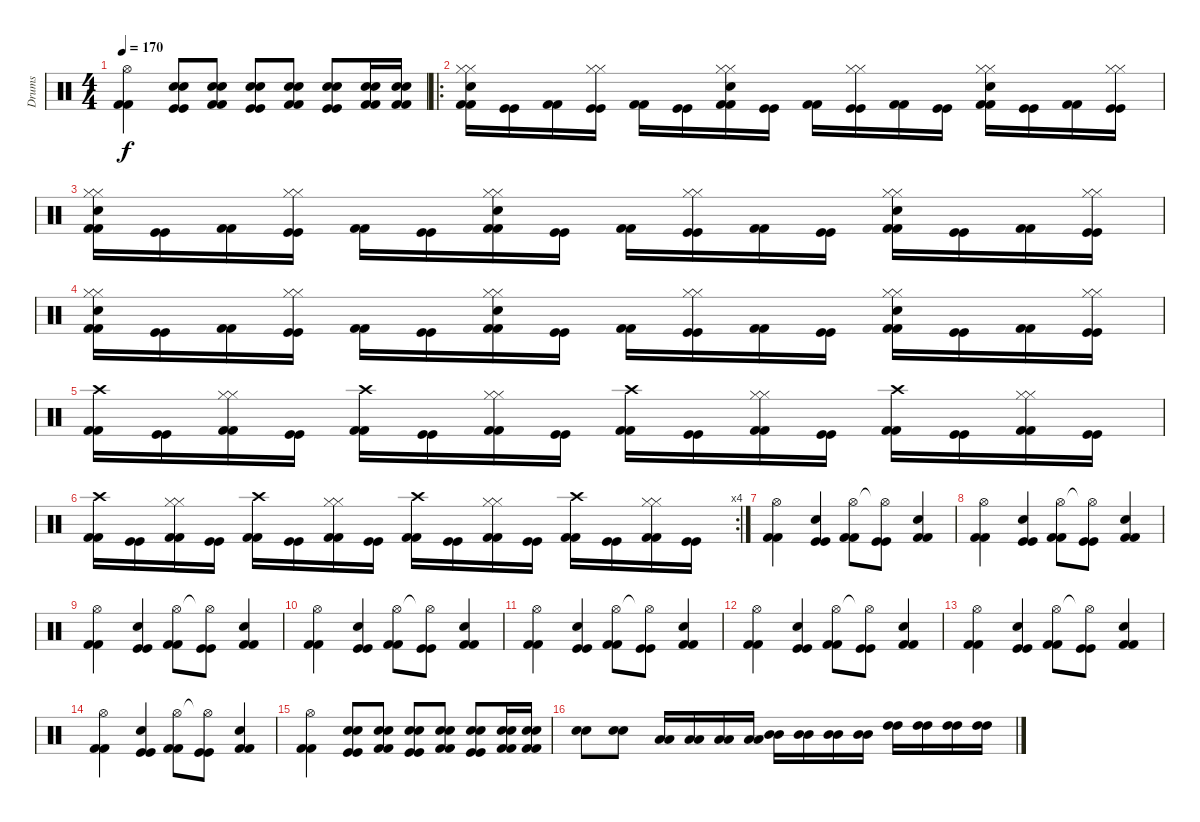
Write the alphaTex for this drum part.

\track ("Drums" "Drums") {instrument percussion}
\staff {score}
\articulation defaults
\ts (4 4)
\tempo 170
\clef neutral
\ks c
("Hi-Hat (open)" "Kick (hit) 2" "Kick (hit) 2").4{dy f} ("Electric Snare (hit)" "Electric Snare (hit)" "Kick (hit)" "Kick (hit)").8 ("Electric Snare (hit)" "Electric Snare (hit)" "Kick (hit) 2" "Kick (hit) 2").8 ("Electric Snare (hit)" "Electric Snare (hit)" "Kick (hit)" "Kick (hit)").8 ("Electric Snare (hit)" "Electric Snare (hit)" "Kick (hit) 2" "Kick (hit) 2").8 ("Electric Snare (hit)" "Electric Snare (hit)" "Kick (hit)" "Kick (hit)").8 ("Electric Snare (hit)" "Electric Snare (hit)" "Kick (hit) 2" "Kick (hit) 2").16 ("Electric Snare (hit)" "Electric Snare (hit)" "Kick (hit) 2" "Kick (hit) 2").16 |
\ro
("Kick (hit) 2" "Kick (hit) 2" "Electric Snare (hit)" "Hi-Hat (closed)" "Hi-Hat (closed)").16 ("Kick (hit)" "Kick (hit)").16 ("Kick (hit) 2" "Kick (hit) 2").16 ("Kick (hit)" "Kick (hit)" "Hi-Hat (closed)" "Hi-Hat (closed)").16 ("Kick (hit) 2" "Kick (hit) 2").16 ("Kick (hit)" "Kick (hit)").16 ("Kick (hit) 2" "Kick (hit) 2" "Electric Snare (hit)" "Hi-Hat (closed)" "Hi-Hat (closed)").16 ("Kick (hit)" "Kick (hit)").16 ("Kick (hit) 2" "Kick (hit) 2").16 ("Kick (hit)" "Kick (hit)" "Hi-Hat (closed)" "Hi-Hat (closed)").16 ("Kick (hit) 2" "Kick (hit) 2").16 ("Kick (hit)" "Kick (hit)").16 ("Kick (hit) 2" "Kick (hit) 2" "Electric Snare (hit)" "Hi-Hat (closed)" "Hi-Hat (closed)").16 ("Kick (hit)" "Kick (hit)").16 ("Kick (hit) 2" "Kick (hit) 2").16 ("Kick (hit)" "Kick (hit)" "Hi-Hat (closed)" "Hi-Hat (closed)").16 |
("Kick (hit) 2" "Kick (hit) 2" "Electric Snare (hit)" "Hi-Hat (closed)" "Hi-Hat (closed)").16 ("Kick (hit)" "Kick (hit)").16 ("Kick (hit) 2" "Kick (hit) 2").16 ("Kick (hit)" "Kick (hit)" "Hi-Hat (closed)" "Hi-Hat (closed)").16 ("Kick (hit) 2" "Kick (hit) 2").16 ("Kick (hit)" "Kick (hit)").16 ("Kick (hit) 2" "Kick (hit) 2" "Electric Snare (hit)" "Hi-Hat (closed)" "Hi-Hat (closed)").16 ("Kick (hit)" "Kick (hit)").16 ("Kick (hit) 2" "Kick (hit) 2").16 ("Kick (hit)" "Kick (hit)" "Hi-Hat (closed)" "Hi-Hat (closed)").16 ("Kick (hit) 2" "Kick (hit) 2").16 ("Kick (hit)" "Kick (hit)").16 ("Kick (hit) 2" "Kick (hit) 2" "Electric Snare (hit)" "Hi-Hat (closed)" "Hi-Hat (closed)").16 ("Kick (hit)" "Kick (hit)").16 ("Kick (hit) 2" "Kick (hit) 2").16 ("Kick (hit)" "Kick (hit)" "Hi-Hat (closed)" "Hi-Hat (closed)").16 |
("Kick (hit) 2" "Kick (hit) 2" "Electric Snare (hit)" "Hi-Hat (closed)" "Hi-Hat (closed)").16 ("Kick (hit)" "Kick (hit)").16 ("Kick (hit) 2" "Kick (hit) 2").16 ("Kick (hit)" "Kick (hit)" "Hi-Hat (closed)" "Hi-Hat (closed)").16 ("Kick (hit) 2" "Kick (hit) 2").16 ("Kick (hit)" "Kick (hit)").16 ("Kick (hit) 2" "Kick (hit) 2" "Electric Snare (hit)" "Hi-Hat (closed)" "Hi-Hat (closed)").16 ("Kick (hit)" "Kick (hit)").16 ("Kick (hit) 2" "Kick (hit) 2").16 ("Kick (hit)" "Kick (hit)" "Hi-Hat (closed)" "Hi-Hat (closed)").16 ("Kick (hit) 2" "Kick (hit) 2").16 ("Kick (hit)" "Kick (hit)").16 ("Kick (hit) 2" "Kick (hit) 2" "Electric Snare (hit)" "Hi-Hat (closed)" "Hi-Hat (closed)").16 ("Kick (hit)" "Kick (hit)").16 ("Kick (hit) 2" "Kick (hit) 2").16 ("Kick (hit)" "Kick (hit)" "Hi-Hat (closed)" "Hi-Hat (closed)").16 |
("Kick (hit) 2" "Kick (hit) 2" "Crash high (hit)").16 ("Kick (hit)" "Kick (hit)").16 ("Kick (hit) 2" "Kick (hit) 2" "Hi-Hat (closed)" "Hi-Hat (closed)").16 ("Kick (hit)" "Kick (hit)").16 ("Kick (hit) 2" "Kick (hit) 2" "Crash high (hit)").16 ("Kick (hit)" "Kick (hit)").16 ("Kick (hit) 2" "Kick (hit) 2" "Hi-Hat (closed)" "Hi-Hat (closed)").16 ("Kick (hit)" "Kick (hit)").16 ("Kick (hit) 2" "Kick (hit) 2" "Crash high (hit)").16 ("Kick (hit)" "Kick (hit)").16 ("Kick (hit) 2" "Kick (hit) 2" "Hi-Hat (closed)" "Hi-Hat (closed)").16 ("Kick (hit)" "Kick (hit)").16 ("Kick (hit) 2" "Kick (hit) 2" "Crash high (hit)").16 ("Kick (hit)" "Kick (hit)").16 ("Kick (hit) 2" "Kick (hit) 2" "Hi-Hat (closed)" "Hi-Hat (closed)").16 ("Kick (hit)" "Kick (hit)").16 |
\rc 4
("Kick (hit) 2" "Kick (hit) 2" "Crash high (hit)").16 ("Kick (hit)" "Kick (hit)").16 ("Kick (hit) 2" "Kick (hit) 2" "Hi-Hat (closed)" "Hi-Hat (closed)").16 ("Kick (hit)" "Kick (hit)").16 ("Kick (hit) 2" "Kick (hit) 2" "Crash high (hit)").16 ("Kick (hit)" "Kick (hit)").16 ("Kick (hit) 2" "Kick (hit) 2" "Hi-Hat (closed)" "Hi-Hat (closed)").16 ("Kick (hit)" "Kick (hit)").16 ("Kick (hit) 2" "Kick (hit) 2" "Crash high (hit)").16 ("Kick (hit)" "Kick (hit)").16 ("Kick (hit) 2" "Kick (hit) 2" "Hi-Hat (closed)" "Hi-Hat (closed)").16 ("Kick (hit)" "Kick (hit)").16 ("Kick (hit) 2" "Kick (hit) 2" "Crash high (hit)").16 ("Kick (hit)" "Kick (hit)").16 ("Kick (hit) 2" "Kick (hit) 2" "Hi-Hat (closed)" "Hi-Hat (closed)").16 ("Kick (hit)" "Kick (hit)").16 |
("Hi-Hat (open)" "Kick (hit) 2" "Kick (hit) 2").4 ("Electric Snare (hit)" "Kick (hit)" "Kick (hit)").4 ("Hi-Hat (open)" "Kick (hit) 2" "Kick (hit) 2").8 ("Hi-Hat (open)"{t} "Kick (hit)" "Kick (hit)").8 ("Electric Snare (hit)" "Kick (hit) 2" "Kick (hit) 2").4 |
("Hi-Hat (open)" "Kick (hit) 2" "Kick (hit) 2").4 ("Electric Snare (hit)" "Kick (hit)" "Kick (hit)").4 ("Hi-Hat (open)" "Kick (hit) 2" "Kick (hit) 2").8 ("Hi-Hat (open)"{t} "Kick (hit)" "Kick (hit)").8 ("Electric Snare (hit)" "Kick (hit) 2" "Kick (hit) 2").4 |
("Hi-Hat (open)" "Kick (hit) 2" "Kick (hit) 2").4 ("Electric Snare (hit)" "Kick (hit)" "Kick (hit)").4 ("Hi-Hat (open)" "Kick (hit) 2" "Kick (hit) 2").8 ("Hi-Hat (open)"{t} "Kick (hit)" "Kick (hit)").8 ("Electric Snare (hit)" "Kick (hit) 2" "Kick (hit) 2").4 |
("Hi-Hat (open)" "Kick (hit) 2" "Kick (hit) 2").4 ("Electric Snare (hit)" "Kick (hit)" "Kick (hit)").4 ("Hi-Hat (open)" "Kick (hit) 2" "Kick (hit) 2").8 ("Hi-Hat (open)"{t} "Kick (hit)" "Kick (hit)").8 ("Electric Snare (hit)" "Kick (hit) 2" "Kick (hit) 2").4 |
("Hi-Hat (open)" "Kick (hit) 2" "Kick (hit) 2").4 ("Electric Snare (hit)" "Kick (hit)" "Kick (hit)").4 ("Hi-Hat (open)" "Kick (hit) 2" "Kick (hit) 2").8 ("Hi-Hat (open)"{t} "Kick (hit)" "Kick (hit)").8 ("Electric Snare (hit)" "Kick (hit) 2" "Kick (hit) 2").4 |
("Hi-Hat (open)" "Kick (hit) 2" "Kick (hit) 2").4 ("Electric Snare (hit)" "Kick (hit)" "Kick (hit)").4 ("Hi-Hat (open)" "Kick (hit) 2" "Kick (hit) 2").8 ("Hi-Hat (open)"{t} "Kick (hit)" "Kick (hit)").8 ("Electric Snare (hit)" "Kick (hit) 2" "Kick (hit) 2").4 |
("Hi-Hat (open)" "Kick (hit) 2" "Kick (hit) 2").4 ("Electric Snare (hit)" "Kick (hit)" "Kick (hit)").4 ("Hi-Hat (open)" "Kick (hit) 2" "Kick (hit) 2").8 ("Hi-Hat (open)"{t} "Kick (hit)" "Kick (hit)").8 ("Electric Snare (hit)" "Kick (hit) 2" "Kick (hit) 2").4 |
("Hi-Hat (open)" "Kick (hit) 2" "Kick (hit) 2").4 ("Electric Snare (hit)" "Kick (hit)" "Kick (hit)").4 ("Hi-Hat (open)" "Kick (hit) 2" "Kick (hit) 2").8 ("Hi-Hat (open)"{t} "Kick (hit)" "Kick (hit)").8 ("Electric Snare (hit)" "Kick (hit) 2" "Kick (hit) 2").4 |
("Hi-Hat (open)" "Kick (hit) 2" "Kick (hit) 2").4 ("Electric Snare (hit)" "Electric Snare (hit)" "Kick (hit)" "Kick (hit)").8 ("Electric Snare (hit)" "Electric Snare (hit)" "Kick (hit) 2" "Kick (hit) 2").8 ("Electric Snare (hit)" "Electric Snare (hit)" "Kick (hit)" "Kick (hit)").8 ("Electric Snare (hit)" "Electric Snare (hit)" "Kick (hit) 2" "Kick (hit) 2").8 ("Electric Snare (hit)" "Electric Snare (hit)" "Kick (hit)" "Kick (hit)").8 ("Electric Snare (hit)" "Electric Snare (hit)" "Kick (hit) 2" "Kick (hit) 2").16 ("Electric Snare (hit)" "Electric Snare (hit)" "Kick (hit) 2" "Kick (hit) 2").16 |
("Electric Snare (hit)" "Electric Snare (hit)").8 ("Electric Snare (hit)" "Electric Snare (hit)").8 ("Low Tom (hit)" "Low Tom (hit)").16 ("Low Tom (hit)" "Low Tom (hit)").16 ("Low Tom (hit)" "Low Tom (hit)").16 ("Low Tom (hit)" "Low Tom (hit)").16 ("Mid Tom (hit)" "Mid Tom (hit)").16 ("Mid Tom (hit)" "Mid Tom (hit)").16 ("Mid Tom (hit)" "Mid Tom (hit)").16 ("Mid Tom (hit)" "Mid Tom (hit)").16 ("High Tom (hit)" "High Tom (hit)").16 ("High Tom (hit)" "High Tom (hit)").16 ("High Tom (hit)" "High Tom (hit)").16 ("High Tom (hit)" "High Tom (hit)").16
